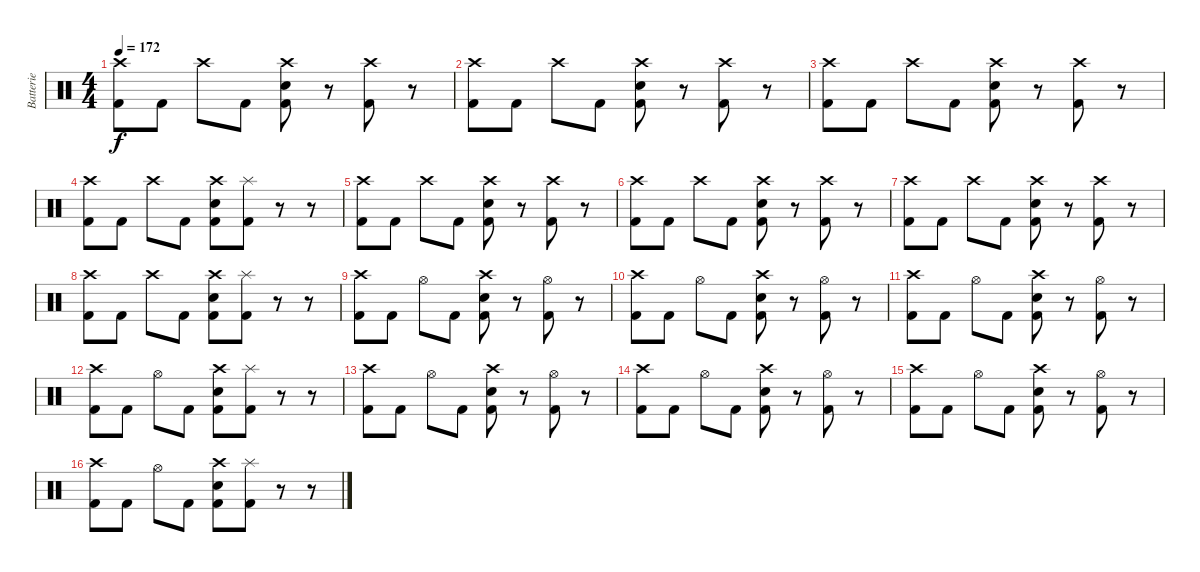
\track ("Batterie" "Batterie") {instrument percussion}
\staff {score}
\articulation defaults
\ts (4 4)
\tempo 172
\clef neutral
\ks c
("Crash high (hit)" "Kick (hit) 2").8{dy f} "Kick (hit) 2".8 "Crash high (hit)".8 "Kick (hit) 2".8 ("Crash high (hit)" "Electric Snare (hit)" "Kick (hit) 2").8 r.8 ("Crash high (hit)" "Kick (hit) 2").8 r.8 |
("Crash high (hit)" "Kick (hit) 2").8 "Kick (hit) 2".8 "Crash high (hit)".8 "Kick (hit) 2".8 ("Crash high (hit)" "Electric Snare (hit)" "Kick (hit) 2").8 r.8 ("Crash high (hit)" "Kick (hit) 2").8 r.8 |
("Crash high (hit)" "Kick (hit) 2").8 "Kick (hit) 2".8 "Crash high (hit)".8 "Kick (hit) 2".8 ("Crash high (hit)" "Electric Snare (hit)" "Kick (hit) 2").8 r.8 ("Crash high (hit)" "Kick (hit) 2").8 r.8 |
("Crash high (hit)" "Kick (hit) 2").8 "Kick (hit) 2".8 "Crash high (hit)".8 "Kick (hit) 2".8 ("Crash high (hit)" "Electric Snare (hit)" "Kick (hit) 2").8 ("Splash (hit)" "Kick (hit) 2").8 r.8 r.8 |
("Crash high (hit)" "Kick (hit) 2").8 "Kick (hit) 2".8 "Crash high (hit)".8 "Kick (hit) 2".8 ("Crash high (hit)" "Electric Snare (hit)" "Kick (hit) 2").8 r.8 ("Crash high (hit)" "Kick (hit) 2").8 r.8 |
("Crash high (hit)" "Kick (hit) 2").8 "Kick (hit) 2".8 "Crash high (hit)".8 "Kick (hit) 2".8 ("Crash high (hit)" "Electric Snare (hit)" "Kick (hit) 2").8 r.8 ("Crash high (hit)" "Kick (hit) 2").8 r.8 |
("Crash high (hit)" "Kick (hit) 2").8 "Kick (hit) 2".8 "Crash high (hit)".8 "Kick (hit) 2".8 ("Crash high (hit)" "Electric Snare (hit)" "Kick (hit) 2").8 r.8 ("Crash high (hit)" "Kick (hit) 2").8 r.8 |
("Crash high (hit)" "Kick (hit) 2").8 "Kick (hit) 2".8 "Crash high (hit)".8 "Kick (hit) 2".8 ("Crash high (hit)" "Electric Snare (hit)" "Kick (hit) 2").8 ("Splash (hit)" "Kick (hit) 2").8 r.8 r.8 |
("Crash high (hit)" "Kick (hit) 2").8 "Kick (hit) 2".8 "Hi-Hat (open)".8 "Kick (hit) 2".8 ("Crash high (hit)" "Electric Snare (hit)" "Kick (hit) 2").8 r.8 ("Hi-Hat (open)" "Kick (hit) 2").8 r.8 |
("Crash high (hit)" "Kick (hit) 2").8 "Kick (hit) 2".8 "Hi-Hat (open)".8 "Kick (hit) 2".8 ("Crash high (hit)" "Electric Snare (hit)" "Kick (hit) 2").8 r.8 ("Hi-Hat (open)" "Kick (hit) 2").8 r.8 |
("Crash high (hit)" "Kick (hit) 2").8 "Kick (hit) 2".8 "Hi-Hat (open)".8 "Kick (hit) 2".8 ("Crash high (hit)" "Electric Snare (hit)" "Kick (hit) 2").8 r.8 ("Hi-Hat (open)" "Kick (hit) 2").8 r.8 |
("Crash high (hit)" "Kick (hit) 2").8 "Kick (hit) 2".8 "Hi-Hat (open)".8 "Kick (hit) 2".8 ("Crash high (hit)" "Electric Snare (hit)" "Kick (hit) 2").8 ("Splash (hit)" "Kick (hit) 2").8 r.8 r.8 |
("Crash high (hit)" "Kick (hit) 2").8 "Kick (hit) 2".8 "Hi-Hat (open)".8 "Kick (hit) 2".8 ("Crash high (hit)" "Electric Snare (hit)" "Kick (hit) 2").8 r.8 ("Hi-Hat (open)" "Kick (hit) 2").8 r.8 |
("Crash high (hit)" "Kick (hit) 2").8 "Kick (hit) 2".8 "Hi-Hat (open)".8 "Kick (hit) 2".8 ("Crash high (hit)" "Electric Snare (hit)" "Kick (hit) 2").8 r.8 ("Hi-Hat (open)" "Kick (hit) 2").8 r.8 |
("Crash high (hit)" "Kick (hit) 2").8 "Kick (hit) 2".8 "Hi-Hat (open)".8 "Kick (hit) 2".8 ("Crash high (hit)" "Electric Snare (hit)" "Kick (hit) 2").8 r.8 ("Hi-Hat (open)" "Kick (hit) 2").8 r.8 |
("Crash high (hit)" "Kick (hit) 2").8 "Kick (hit) 2".8 "Hi-Hat (open)".8 "Kick (hit) 2".8 ("Crash high (hit)" "Electric Snare (hit)" "Kick (hit) 2").8 ("Splash (hit)" "Kick (hit) 2").8 r.8 r.8
